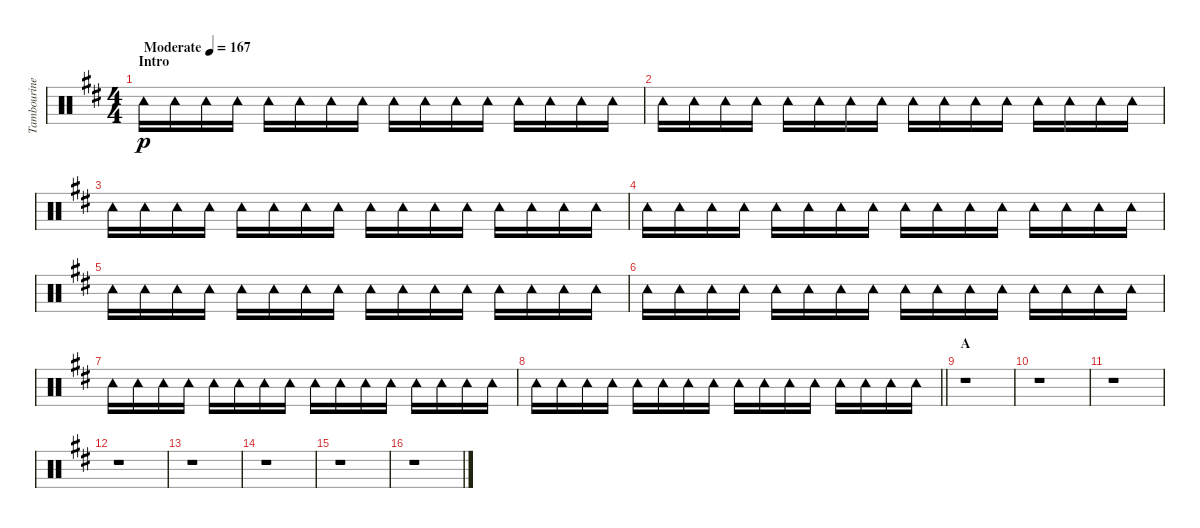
\track ("Tambourine" "Tambourine") {instrument percussion}
\staff {score}
\articulation defaults
\ts (4 4)
\section ("" "Intro")
\tempo (167 "Moderate")
\clef neutral
\ks d "Tambourine (hit)".16{dy p} "Tambourine (hit)".16 "Tambourine (hit)".16 "Tambourine (hit)".16 "Tambourine (hit)".16 "Tambourine (hit)".16 "Tambourine (hit)".16 "Tambourine (hit)".16 "Tambourine (hit)".16 "Tambourine (hit)".16 "Tambourine (hit)".16 "Tambourine (hit)".16 "Tambourine (hit)".16 "Tambourine (hit)".16 "Tambourine (hit)".16 "Tambourine (hit)".16
|
"Tambourine (hit)".16 "Tambourine (hit)".16 "Tambourine (hit)".16 "Tambourine (hit)".16 "Tambourine (hit)".16 "Tambourine (hit)".16 "Tambourine (hit)".16 "Tambourine (hit)".16 "Tambourine (hit)".16 "Tambourine (hit)".16 "Tambourine (hit)".16 "Tambourine (hit)".16 "Tambourine (hit)".16 "Tambourine (hit)".16 "Tambourine (hit)".16 "Tambourine (hit)".16 |
"Tambourine (hit)".16 "Tambourine (hit)".16 "Tambourine (hit)".16 "Tambourine (hit)".16 "Tambourine (hit)".16 "Tambourine (hit)".16 "Tambourine (hit)".16 "Tambourine (hit)".16 "Tambourine (hit)".16 "Tambourine (hit)".16 "Tambourine (hit)".16 "Tambourine (hit)".16 "Tambourine (hit)".16 "Tambourine (hit)".16 "Tambourine (hit)".16 "Tambourine (hit)".16 |
"Tambourine (hit)".16 "Tambourine (hit)".16 "Tambourine (hit)".16 "Tambourine (hit)".16 "Tambourine (hit)".16 "Tambourine (hit)".16 "Tambourine (hit)".16 "Tambourine (hit)".16 "Tambourine (hit)".16 "Tambourine (hit)".16 "Tambourine (hit)".16 "Tambourine (hit)".16 "Tambourine (hit)".16 "Tambourine (hit)".16 "Tambourine (hit)".16 "Tambourine (hit)".16 |
"Tambourine (hit)".16 "Tambourine (hit)".16 "Tambourine (hit)".16 "Tambourine (hit)".16 "Tambourine (hit)".16 "Tambourine (hit)".16 "Tambourine (hit)".16 "Tambourine (hit)".16 "Tambourine (hit)".16 "Tambourine (hit)".16 "Tambourine (hit)".16 "Tambourine (hit)".16 "Tambourine (hit)".16 "Tambourine (hit)".16 "Tambourine (hit)".16 "Tambourine (hit)".16 |
"Tambourine (hit)".16 "Tambourine (hit)".16 "Tambourine (hit)".16 "Tambourine (hit)".16 "Tambourine (hit)".16 "Tambourine (hit)".16 "Tambourine (hit)".16 "Tambourine (hit)".16 "Tambourine (hit)".16 "Tambourine (hit)".16 "Tambourine (hit)".16 "Tambourine (hit)".16 "Tambourine (hit)".16 "Tambourine (hit)".16 "Tambourine (hit)".16 "Tambourine (hit)".16 |
"Tambourine (hit)".16 "Tambourine (hit)".16 "Tambourine (hit)".16 "Tambourine (hit)".16 "Tambourine (hit)".16 "Tambourine (hit)".16 "Tambourine (hit)".16 "Tambourine (hit)".16 "Tambourine (hit)".16 "Tambourine (hit)".16 "Tambourine (hit)".16 "Tambourine (hit)".16 "Tambourine (hit)".16 "Tambourine (hit)".16 "Tambourine (hit)".16 "Tambourine (hit)".16 |
\barLineRight lightlight "Tambourine (hit)".16 "Tambourine (hit)".16 "Tambourine (hit)".16 "Tambourine (hit)".16 "Tambourine (hit)".16 "Tambourine (hit)".16 "Tambourine (hit)".16 "Tambourine (hit)".16 "Tambourine (hit)".16 "Tambourine (hit)".16 "Tambourine (hit)".16 "Tambourine (hit)".16 "Tambourine (hit)".16 "Tambourine (hit)".16 "Tambourine (hit)".16 "Tambourine (hit)".16
|
\section ("" "A")
r.1 |
r.1 |
r.1 |
r.1 |
r.1 |
r.1 |
r.1 |
r.1
